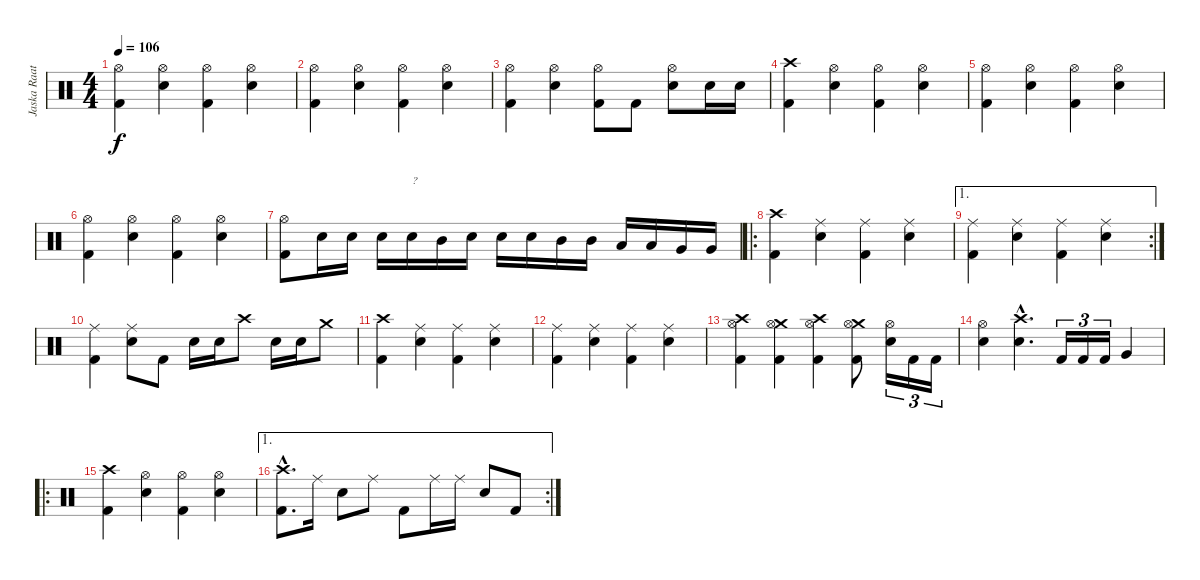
\track ("Jaska Raatikainen" "Jaska Raat") {instrument percussion}
\staff {score}
\articulation defaults
\ts (4 4)
\tempo 106
\clef neutral
\ks c
("Kick (hit) 2" "Hi-Hat (open)").4{dy f} ("Hi-Hat (open)" "Snare (hit) 2").4 ("Kick (hit) 2" "Hi-Hat (open)").4 ("Hi-Hat (open)" "Snare (hit) 2").4 |
("Kick (hit) 2" "Hi-Hat (open)").4 ("Hi-Hat (open)" "Snare (hit) 2").4 ("Kick (hit) 2" "Hi-Hat (open)").4 ("Hi-Hat (open)" "Snare (hit) 2").4 |
("Kick (hit) 2" "Hi-Hat (open)").4 ("Hi-Hat (open)" "Snare (hit) 2").4 ("Kick (hit) 2" "Hi-Hat (open)").8 "Kick (hit) 2".8 ("Hi-Hat (open)" "Snare (hit) 2").8 "Snare (hit) 2".16 "Snare (hit) 2".16 |
("Kick (hit) 2" "Crash high (hit)").4 ("Hi-Hat (open)" "Snare (hit) 2").4 ("Kick (hit) 2" "Hi-Hat (open)").4 ("Hi-Hat (open)" "Snare (hit) 2").4 |
("Kick (hit) 2" "Hi-Hat (open)").4 ("Hi-Hat (open)" "Snare (hit) 2").4 ("Kick (hit) 2" "Hi-Hat (open)").4 ("Hi-Hat (open)" "Snare (hit) 2").4 |
("Kick (hit) 2" "Hi-Hat (open)").4 ("Hi-Hat (open)" "Snare (hit) 2").4 ("Kick (hit) 2" "Hi-Hat (open)").4 ("Hi-Hat (open)" "Snare (hit) 2").4 |
("Kick (hit) 2" "Hi-Hat (open)").8 "Snare (hit) 2".16 "Snare (hit) 2".16 "Snare (hit) 2".16 "Snare (hit) 2".16{txt "?"} "Mid Tom (hit)".16 "Snare (hit) 2".16 "Snare (hit) 2".16 "Snare (hit) 2".16 "Mid Tom (hit)".16 "Mid Tom (hit)".16 "Low Tom (hit)".16 "Low Tom (hit)".16 "Very Low Tom (hit)".16 "Very Low Tom (hit)".16 |
\ro
("Kick (hit) 2" "Crash high (hit)").4 ("Ride (middle)" "Snare (hit) 2").4 ("Kick (hit) 2" "Ride (middle)").4 ("Ride (middle)" "Snare (hit) 2").4 |
\ae 1
\rc 2
("Kick (hit) 2" "Ride (middle)").4 ("Ride (middle)" "Snare (hit) 2").4 ("Kick (hit) 2" "Ride (middle)").4 ("Ride (middle)" "Snare (hit) 2").4 |
("Kick (hit) 2" "Ride (middle)").4 ("Ride (middle)" "Snare (hit) 2").8 "Kick (hit) 2".8 "Snare (hit) 2".16 "Snare (hit) 2".16 "Crash high (hit)".8 "Snare (hit) 2".16 "Snare (hit) 2".16 "Crash medium (hit)".8 |
("Kick (hit) 2" "Crash high (hit)").4 ("Ride (middle)" "Snare (hit) 2").4 ("Kick (hit) 2" "Ride (middle)").4 ("Ride (middle)" "Snare (hit) 2").4 |
("Kick (hit) 2" "Ride (middle)").4 ("Ride (middle)" "Snare (hit) 2").4 ("Kick (hit) 2" "Ride (middle)").4 ("Ride (middle)" "Snare (hit) 2").4 |
("Kick (hit) 2" "Crash high (hit)" "Hi-Hat (open)").4 ("Kick (hit) 2" "Crash medium (hit)" "Hi-Hat (open)").4 ("Kick (hit) 2" "Crash high (hit)" "Hi-Hat (open)").4 ("Kick (hit) 2" "Crash medium (hit)" "Hi-Hat (open)").8 ("Hi-Hat (open)" "Snare (hit) 2").16{tu (3 2)} "Kick (hit) 2".16{tu (3 2)} "Kick (hit) 2".16{tu (3 2)} |
("Hi-Hat (open)" "Snare (hit) 2").4 ("Crash high (hit)"{hac} "Snare (hit) 2"{hac}).4{d} "Kick (hit) 2".16{tu (3 2)} "Kick (hit) 2".16{tu (3 2)} "Kick (hit) 2".16{tu (3 2)} "Very Low Tom (hit)".4 |
\ro
("Kick (hit) 2" "Crash high (hit)").4 ("Hi-Hat (open)" "Snare (hit) 2").4 ("Kick (hit) 2" "Hi-Hat (open)").4 ("Hi-Hat (open)" "Snare (hit) 2").4 |
\ae 1
\rc 2
("Kick (hit) 2"{hac} "Crash high (hit)"{hac}).8{d} "Ride (middle)".16 "Snare (hit) 2".8 "Ride (middle)".8 "Kick (hit) 2".8 "Ride (middle)".16 "Ride (middle)".16 "Snare (hit) 2".8 "Kick (hit) 2".8
